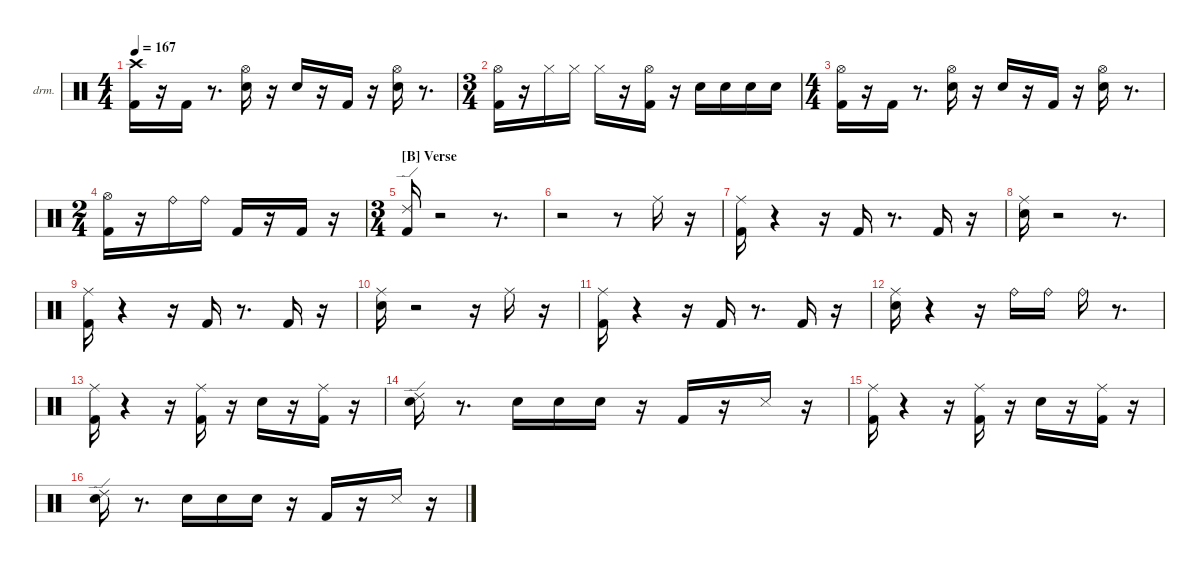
\hideDynamics
\bracketExtendMode nobrackets
\firstSystemTrackNameOrientation horizontal
\otherSystemsTrackNameOrientation horizontal
\track ("Drums" "drm.") {instrument percussion}
\staff {score}
\articulation defaults
\ts (4 4)
\tempo 167
\clef neutral
\ks aminor
("Kick (hit) 2" "Crash high (hit)"{acc #}).16{dy fff} r.16 "Kick (hit) 2".16{dy f} r.8{d} ("Snare (hit) 2" "Hi-Hat (open)"{acc #}).16{dy ff} r.16 "Snare (hit) 2".16{dy p} r.16 "Kick (hit) 2".16{dy ff} r.16 ("Hi-Hat (open)"{acc #} "Snare (hit) 2").16 r.8{d} |
\ts (3 4)
("Kick (hit) 2" "Hi-Hat (open)"{acc #}).16 r.16 "Hi-Hat (closed)"{acc #}.16{dy fff} "Hi-Hat (closed)"{acc #}.16{dy ff} "Hi-Hat (closed)"{acc #}.16{dy fff} r.16 ("Hi-Hat (open)"{acc #} "Kick (hit) 2").16{dy ff} r.16 "Snare (hit) 2".16{dy mp} "Snare (hit) 2".16{dy p} "Snare (hit) 2".16{dy mf} "Snare (hit) 2".16{dy pp} |
\ts (4 4)
("Kick (hit) 2" "Hi-Hat (open)"{acc #}).16{dy fff} r.16 "Kick (hit) 2".16{dy f} r.8{d} ("Snare (hit) 2" "Hi-Hat (open)"{acc #}).16{dy ff} r.16 "Snare (hit) 2".16{dy p} r.16 "Kick (hit) 2".16{dy ff} r.16 ("Snare (hit) 2" "Hi-Hat (open)"{acc #}).16 r.8{d} |
\ts (2 4)
("Hi-Hat (open)"{acc #} "Kick (hit) 2").16 r.16 "Ride (bell)".16{dy fff} "Ride (bell)".16{dy ff} "Kick (hit) 2".16{dy f} r.16 "Kick (hit) 2".16{dy mf} r.16 |
\ts (3 4)
\section ("B" "Verse")
("Kick (hit) 2" "Ride (edge) 2").16{dy fff} r.2 r.8{d} |
r.2 r.8 "Ride (middle)"{acc #}.16{dy mp} r.16 |
("Kick (hit) 2" "Ride (middle)"{acc #}).16{dy ff} r.4 r.16 "Kick (hit) 2".16 r.8{d} "Kick (hit) 2".16 r.16 |
("Ride (middle)"{acc #} "Snare (hit) 2").16{dy mf} r.2 r.8{d} |
("Ride (middle)"{acc #} "Kick (hit) 2").16{dy fff} r.4 r.16 "Kick (hit) 2".16{dy f} r.8{d} "Kick (hit) 2".16 r.16 |
("Ride (middle)"{acc #} "Snare (hit) 2").16{dy mf} r.2 r.16 "Ride (middle)"{acc #}.16{dy mp} r.16 |
("Kick (hit) 2" "Ride (middle)"{acc #}).16{dy ff} r.4 r.16 "Kick (hit) 2".16 r.8{d} "Kick (hit) 2".16 r.16 |
("Snare (hit) 2" "Ride (middle)"{acc #}).16 r.4 r.16 "Ride (bell)".16{dy mf} "Ride (bell)".16{dy mp} "Ride (bell)".16{dy fff} r.8{d} |
("Ride (middle)"{acc #} "Kick (hit) 2").16{dy ff} r.4 r.16 ("Ride (middle)"{acc #} "Kick (hit) 2").16 r.16 "Snare (hit) 2".16{dy mp} r.16 ("Kick (hit) 2" "Ride (middle)"{acc #}).16{dy ff} r.16 |
("Snare (hit) 2" "Ride (edge) 2").16 r.8{d} "Snare (hit) 2".16{dy p} "Snare (hit) 2".16{dy ppp} "Snare (hit) 2".16{dy mf} r.16 "Kick (hit) 2".16{dy mp} r.16 "Snare (side stick) 3"{acc #}.16{dy fff} r.16 |
("Ride (middle)"{acc #} "Kick (hit) 2").16 r.4 r.16 ("Kick (hit) 2" "Ride (middle)"{acc #}).16{dy f} r.16 "Snare (hit) 2".16{dy mp} r.16 ("Kick (hit) 2" "Ride (middle)"{acc #}).16{dy ff} r.16 |
("Ride (edge) 2" "Snare (hit) 2").16{dy fff} r.8{d} "Snare (hit) 2".16{dy p} "Snare (hit) 2".16{dy ppp} "Snare (hit) 2".16{dy mf} r.16 "Kick (hit) 2".16{dy mp} r.16 "Snare (side stick) 3"{acc #}.16{dy fff} r.16
